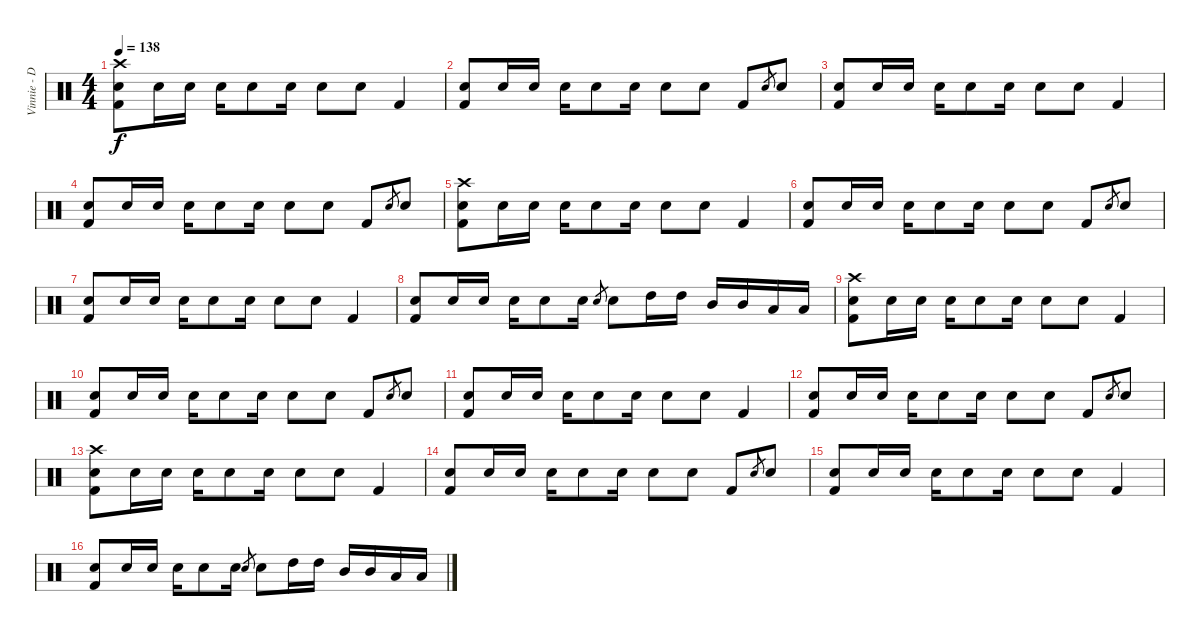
\track ("Vinnie - Drums" "Vinnie - D") {instrument percussion}
\staff {score}
\articulation defaults
\ts (4 4)
\tempo 138
\clef neutral
\ks c
("Crash high (hit)" "Electric Snare (hit)" "Kick (hit) 2").8{dy f} "Electric Snare (hit)".16 "Electric Snare (hit)".16 "Electric Snare (hit)".16 "Electric Snare (hit)".8 "Electric Snare (hit)".16 "Electric Snare (hit)".8 "Electric Snare (hit)".8 "Kick (hit) 2".4 |
("Electric Snare (hit)" "Kick (hit) 2").8 "Electric Snare (hit)".16 "Electric Snare (hit)".16 "Electric Snare (hit)".16 "Electric Snare (hit)".8 "Electric Snare (hit)".16 "Electric Snare (hit)".8 "Electric Snare (hit)".8 "Kick (hit) 2".8 "Electric Snare (hit)"{sl}.8{gr} "Electric Snare (hit)".8 |
("Electric Snare (hit)" "Kick (hit) 2").8 "Electric Snare (hit)".16 "Electric Snare (hit)".16 "Electric Snare (hit)".16 "Electric Snare (hit)".8 "Electric Snare (hit)".16 "Electric Snare (hit)".8 "Electric Snare (hit)".8 "Kick (hit) 2".4 |
("Electric Snare (hit)" "Kick (hit) 2").8 "Electric Snare (hit)".16 "Electric Snare (hit)".16 "Electric Snare (hit)".16 "Electric Snare (hit)".8 "Electric Snare (hit)".16 "Electric Snare (hit)".8 "Electric Snare (hit)".8 "Kick (hit) 2".8 "Electric Snare (hit)"{sl}.8{gr} "Electric Snare (hit)".8 |
("Crash high (hit)" "Electric Snare (hit)" "Kick (hit) 2").8 "Electric Snare (hit)".16 "Electric Snare (hit)".16 "Electric Snare (hit)".16 "Electric Snare (hit)".8 "Electric Snare (hit)".16 "Electric Snare (hit)".8 "Electric Snare (hit)".8 "Kick (hit) 2".4 |
("Electric Snare (hit)" "Kick (hit) 2").8 "Electric Snare (hit)".16 "Electric Snare (hit)".16 "Electric Snare (hit)".16 "Electric Snare (hit)".8 "Electric Snare (hit)".16 "Electric Snare (hit)".8 "Electric Snare (hit)".8 "Kick (hit) 2".8 "Electric Snare (hit)"{sl}.8{gr} "Electric Snare (hit)".8 |
("Electric Snare (hit)" "Kick (hit) 2").8 "Electric Snare (hit)".16 "Electric Snare (hit)".16 "Electric Snare (hit)".16 "Electric Snare (hit)".8 "Electric Snare (hit)".16 "Electric Snare (hit)".8 "Electric Snare (hit)".8 "Kick (hit) 2".4 |
("Electric Snare (hit)" "Kick (hit) 2").8 "Electric Snare (hit)".16 "Electric Snare (hit)".16 "Electric Snare (hit)".16 "Electric Snare (hit)".8 "Electric Snare (hit)".16 "Electric Snare (hit)".8{gr} "Electric Snare (hit)".8 "High Tom (hit)".16 "High Tom (hit)".16 "Mid Tom (hit)".16 "Mid Tom (hit)".16 "Low Tom (hit)".16 "Low Tom (hit)".16 |
("Crash high (hit)" "Electric Snare (hit)" "Kick (hit) 2").8 "Electric Snare (hit)".16 "Electric Snare (hit)".16 "Electric Snare (hit)".16 "Electric Snare (hit)".8 "Electric Snare (hit)".16 "Electric Snare (hit)".8 "Electric Snare (hit)".8 "Kick (hit) 2".4 |
("Electric Snare (hit)" "Kick (hit) 2").8 "Electric Snare (hit)".16 "Electric Snare (hit)".16 "Electric Snare (hit)".16 "Electric Snare (hit)".8 "Electric Snare (hit)".16 "Electric Snare (hit)".8 "Electric Snare (hit)".8 "Kick (hit) 2".8 "Electric Snare (hit)"{sl}.8{gr} "Electric Snare (hit)".8 |
("Electric Snare (hit)" "Kick (hit) 2").8 "Electric Snare (hit)".16 "Electric Snare (hit)".16 "Electric Snare (hit)".16 "Electric Snare (hit)".8 "Electric Snare (hit)".16 "Electric Snare (hit)".8 "Electric Snare (hit)".8 "Kick (hit) 2".4 |
("Electric Snare (hit)" "Kick (hit) 2").8 "Electric Snare (hit)".16 "Electric Snare (hit)".16 "Electric Snare (hit)".16 "Electric Snare (hit)".8 "Electric Snare (hit)".16 "Electric Snare (hit)".8 "Electric Snare (hit)".8 "Kick (hit) 2".8 "Electric Snare (hit)"{sl}.8{gr} "Electric Snare (hit)".8 |
("Crash high (hit)" "Electric Snare (hit)" "Kick (hit) 2").8 "Electric Snare (hit)".16 "Electric Snare (hit)".16 "Electric Snare (hit)".16 "Electric Snare (hit)".8 "Electric Snare (hit)".16 "Electric Snare (hit)".8 "Electric Snare (hit)".8 "Kick (hit) 2".4 |
("Electric Snare (hit)" "Kick (hit) 2").8 "Electric Snare (hit)".16 "Electric Snare (hit)".16 "Electric Snare (hit)".16 "Electric Snare (hit)".8 "Electric Snare (hit)".16 "Electric Snare (hit)".8 "Electric Snare (hit)".8 "Kick (hit) 2".8 "Electric Snare (hit)"{sl}.8{gr} "Electric Snare (hit)".8 |
("Electric Snare (hit)" "Kick (hit) 2").8 "Electric Snare (hit)".16 "Electric Snare (hit)".16 "Electric Snare (hit)".16 "Electric Snare (hit)".8 "Electric Snare (hit)".16 "Electric Snare (hit)".8 "Electric Snare (hit)".8 "Kick (hit) 2".4 |
("Electric Snare (hit)" "Kick (hit) 2").8 "Electric Snare (hit)".16 "Electric Snare (hit)".16 "Electric Snare (hit)".16 "Electric Snare (hit)".8 "Electric Snare (hit)".16 "Electric Snare (hit)".8{gr} "Electric Snare (hit)".8 "High Tom (hit)".16 "High Tom (hit)".16 "Mid Tom (hit)".16 "Mid Tom (hit)".16 "Low Tom (hit)".16 "Low Tom (hit)".16
